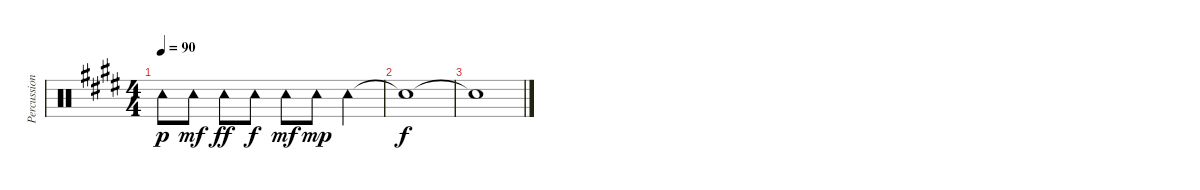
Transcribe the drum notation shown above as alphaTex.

\track ("Percussion" "Percussion") {instrument percussion}
\staff {score}
\articulation defaults
\ts (4 4)
\tempo 90
\clef neutral
\ks e "Tambourine (hit)".8{dy p} "Tambourine (hit)".8{dy mf} "Tambourine (hit)".8{dy ff} "Tambourine (hit)".8{dy f} "Tambourine (hit)".8{dy mf} "Tambourine (hit)".8{dy mp} "Tambourine (hit)".4
|
"Snare (hit)"{t}.1{dy f} |
"Snare (hit)"{t}.1
